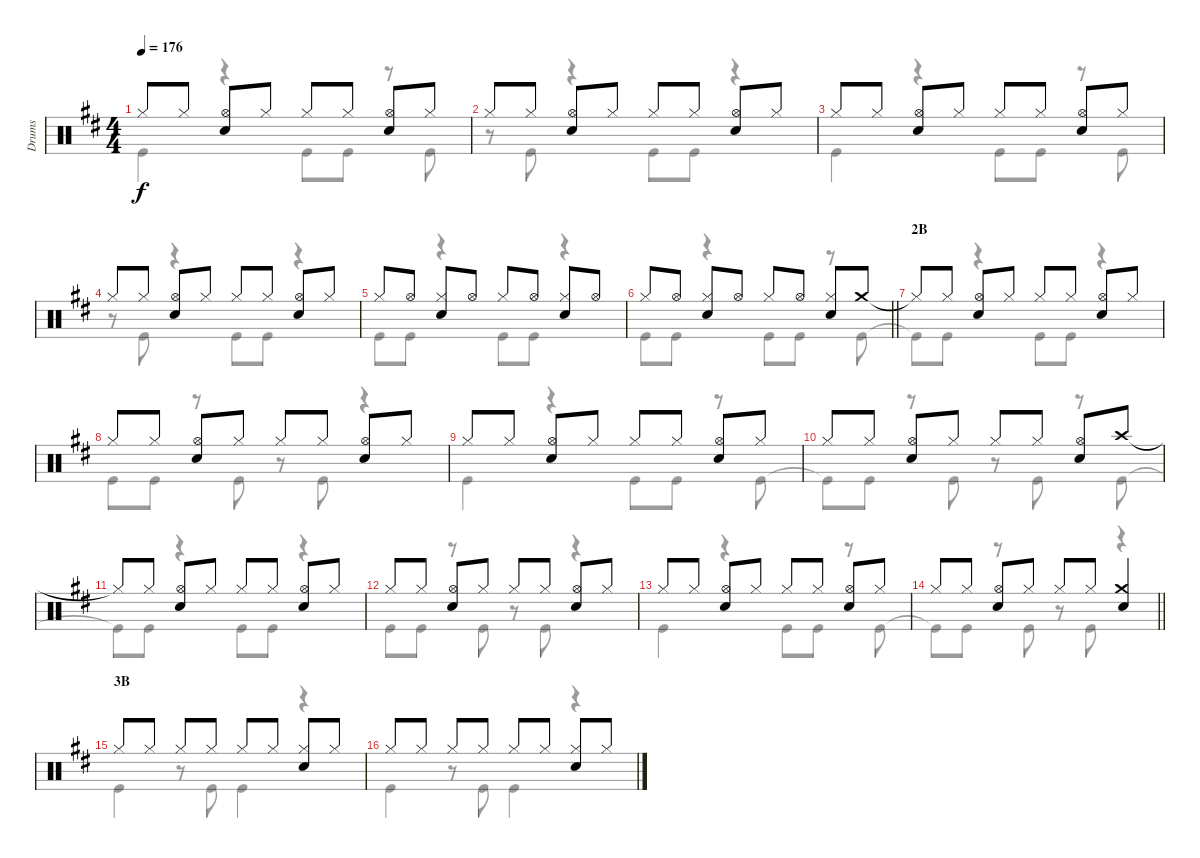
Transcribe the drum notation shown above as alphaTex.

\track ("Drums" "Drums") {instrument percussion}
\staff {score}
\articulation defaults
\voice
\ts (4 4)
\tempo 176
\clef neutral
\ks d "Hi-Hat (closed)".8{dy f} "Hi-Hat (closed)".8
("Hi-Hat (open)" "Snare (hit) 2").8 "Hi-Hat (closed)".8 "Hi-Hat (closed)".8 "Hi-Hat (closed)".8 ("Hi-Hat (open)" "Snare (hit) 2").8 "Hi-Hat (closed)".8 |
"Hi-Hat (closed)".8 "Hi-Hat (closed)".8 ("Hi-Hat (open)" "Snare (hit) 2").8 "Hi-Hat (closed)".8 "Hi-Hat (closed)".8 "Hi-Hat (closed)".8 ("Hi-Hat (open)" "Snare (hit) 2").8 "Hi-Hat (closed)".8 |
"Hi-Hat (closed)".8 "Hi-Hat (closed)".8 ("Hi-Hat (open)" "Snare (hit) 2").8 "Hi-Hat (closed)".8 "Hi-Hat (closed)".8 "Hi-Hat (closed)".8 ("Hi-Hat (open)" "Snare (hit) 2").8 "Hi-Hat (closed)".8 |
"Hi-Hat (closed)".8 "Hi-Hat (closed)".8 ("Hi-Hat (open)" "Snare (hit) 2").8 "Hi-Hat (closed)".8 "Hi-Hat (closed)".8 "Hi-Hat (closed)".8 ("Hi-Hat (open)" "Snare (hit) 2").8 "Hi-Hat (closed)".8 |
"Hi-Hat (closed)".8 "Hi-Hat (open)".8 ("Hi-Hat (closed)" "Snare (hit) 2").8 "Hi-Hat (open)".8 "Hi-Hat (closed)".8 "Hi-Hat (open)".8 ("Hi-Hat (closed)" "Snare (hit) 2").8 "Hi-Hat (open)".8 |
\barLineRight lightlight "Hi-Hat (closed)".8 "Hi-Hat (open)".8
("Hi-Hat (closed)" "Snare (hit) 2").8 "Hi-Hat (open)".8 "Hi-Hat (closed)".8 "Hi-Hat (open)".8 ("Hi-Hat (closed)" "Snare (hit) 2").8 "Crash medium (hit)".8 |
\section ("" "2B")
"Hi-Hat (closed)"{t}.8 "Hi-Hat (closed)".8 ("Hi-Hat (open)" "Snare (hit) 2").8 "Hi-Hat (closed)".8 "Hi-Hat (closed)".8 "Hi-Hat (closed)".8 ("Hi-Hat (open)" "Snare (hit) 2").8 "Hi-Hat (closed)".8 |
"Hi-Hat (closed)".8 "Hi-Hat (closed)".8 ("Hi-Hat (open)" "Snare (hit) 2").8 "Hi-Hat (closed)".8 "Hi-Hat (closed)".8 "Hi-Hat (closed)".8 ("Hi-Hat (open)" "Snare (hit) 2").8 "Hi-Hat (closed)".8 |
"Hi-Hat (closed)".8 "Hi-Hat (closed)".8 ("Hi-Hat (open)" "Snare (hit) 2").8 "Hi-Hat (closed)".8 "Hi-Hat (closed)".8 "Hi-Hat (closed)".8 ("Hi-Hat (open)" "Snare (hit) 2").8 "Hi-Hat (closed)".8 |
"Hi-Hat (closed)".8 "Hi-Hat (closed)".8 ("Hi-Hat (open)" "Snare (hit) 2").8 "Hi-Hat (closed)".8 "Hi-Hat (closed)".8 "Hi-Hat (closed)".8 ("Hi-Hat (open)" "Snare (hit) 2").8 "Crash high (hit)".8 |
"Hi-Hat (closed)"{t}.8 "Hi-Hat (closed)".8 ("Hi-Hat (open)" "Snare (hit) 2").8 "Hi-Hat (closed)".8 "Hi-Hat (closed)".8 "Hi-Hat (closed)".8 ("Hi-Hat (open)" "Snare (hit) 2").8 "Hi-Hat (closed)".8 |
"Hi-Hat (closed)".8 "Hi-Hat (closed)".8 ("Hi-Hat (open)" "Snare (hit) 2").8 "Hi-Hat (closed)".8 "Hi-Hat (closed)".8 "Hi-Hat (closed)".8 ("Hi-Hat (open)" "Snare (hit) 2").8 "Hi-Hat (closed)".8 |
"Hi-Hat (closed)".8 "Hi-Hat (closed)".8 ("Hi-Hat (open)" "Snare (hit) 2").8 "Hi-Hat (closed)".8 "Hi-Hat (closed)".8 "Hi-Hat (closed)".8 ("Hi-Hat (open)" "Snare (hit) 2").8 "Hi-Hat (closed)".8 |
\barLineRight lightlight "Hi-Hat (closed)".8 "Hi-Hat (closed)".8
("Hi-Hat (open)" "Snare (hit) 2").8 "Hi-Hat (closed)".8 "Hi-Hat (closed)".8 "Hi-Hat (closed)".8 ("Crash medium (hit)" "Snare (hit) 2").4 |
\section ("" "3B")
"Hi-Hat (closed)".8 "Hi-Hat (closed)".8 "Hi-Hat (closed)".8 "Hi-Hat (closed)".8 "Hi-Hat (closed)".8 "Hi-Hat (closed)".8 ("Hi-Hat (closed)" "Snare (hit) 2").8 "Hi-Hat (closed)".8 |
"Hi-Hat (closed)".8 "Hi-Hat (closed)".8 "Hi-Hat (closed)".8 "Hi-Hat (closed)".8 "Hi-Hat (closed)".8 "Hi-Hat (closed)".8 ("Hi-Hat (closed)" "Snare (hit) 2").8 "Hi-Hat (closed)".8
\voice
\clef neutral
\ottava regular
\simile none
\ks d "Kick (hit)".4{dy f}
r.4 "Kick (hit)".8 "Kick (hit)".8 r.8 "Kick (hit)".8 |
r.8 "Kick (hit)".8 r.4 "Kick (hit)".8 "Kick (hit)".8 r.4 |
"Kick (hit)".4 r.4 "Kick (hit)".8 "Kick (hit)".8 r.8 "Kick (hit)".8 |
r.8 "Kick (hit)".8 r.4 "Kick (hit)".8 "Kick (hit)".8 r.4 |
"Kick (hit)".8 "Kick (hit)".8 r.4 "Kick (hit)".8 "Kick (hit)".8 r.4 |
\barLineRight lightlight "Kick (hit)".8 "Kick (hit)".8
r.4 "Kick (hit)".8 "Kick (hit)".8 r.8 "Kick (hit)".8 |
"Kick (hit)"{t}.8 "Kick (hit)".8 r.4 "Kick (hit)".8 "Kick (hit)".8 r.4 |
"Kick (hit)".8 "Kick (hit)".8 r.8 "Kick (hit)".8 r.8 "Kick (hit)".8 r.4 |
"Kick (hit)".4 r.4 "Kick (hit)".8 "Kick (hit)".8 r.8 "Kick (hit)".8 |
"Kick (hit)"{t}.8 "Kick (hit)".8 r.8 "Kick (hit)".8 r.8 "Kick (hit)".8 r.8 "Kick (hit)".8 |
"Kick (hit)"{t}.8 "Kick (hit)".8 r.4 "Kick (hit)".8 "Kick (hit)".8 r.4 |
"Kick (hit)".8 "Kick (hit)".8 r.8 "Kick (hit)".8 r.8 "Kick (hit)".8 r.4 |
"Kick (hit)".4 r.4 "Kick (hit)".8 "Kick (hit)".8 r.8 "Kick (hit)".8 |
\barLineRight lightlight "Kick (hit)"{t}.8 "Kick (hit)".8
r.8 "Kick (hit)".8 r.8 "Kick (hit)".8 r.4 |
"Kick (hit)".4 r.8 "Kick (hit)".8 "Kick (hit)".4 r.4 |
"Kick (hit)".4 r.8 "Kick (hit)".8 "Kick (hit)".4 r.4
